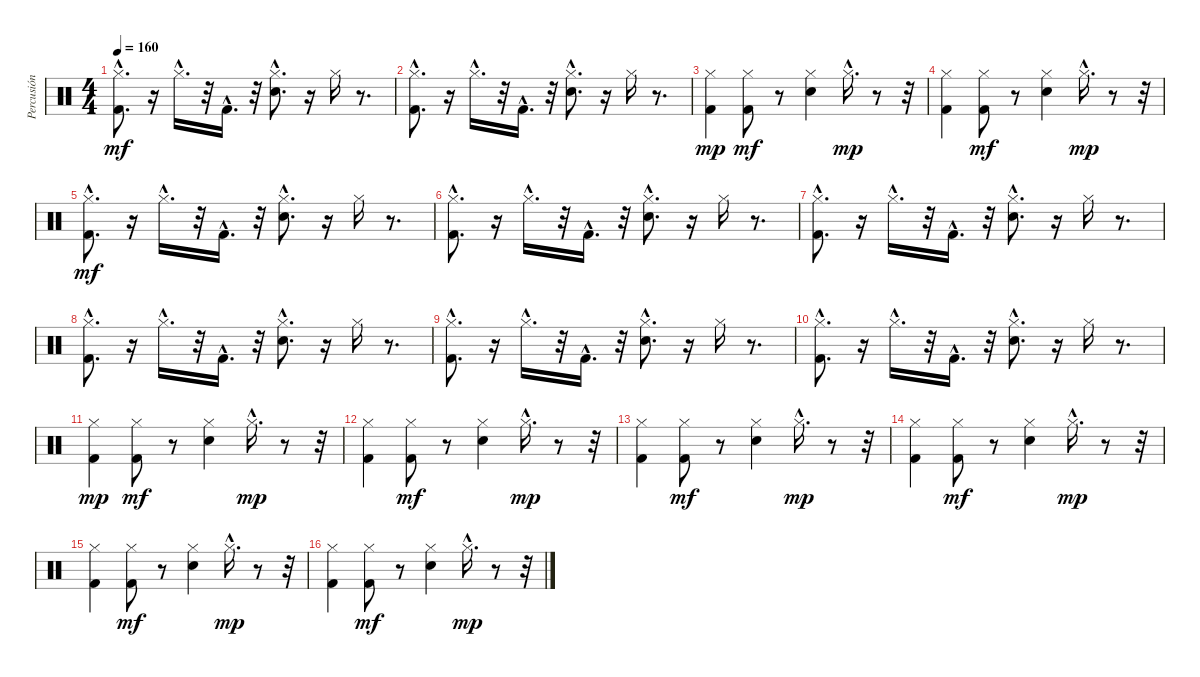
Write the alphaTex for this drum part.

\track ("Percusión" "Percusión") {instrument percussion}
\staff {score}
\articulation defaults
\ts (4 4)
\tempo 160
\clef neutral
\ks c
("Hi-Hat (closed)"{hac} "Kick (hit) 2"{hac}).8{d dy mf} r.16 "Hi-Hat (closed)"{hac}.16{d} r.32 "Kick (hit) 2"{hac}.16{d} r.32 ("Hi-Hat (closed)"{hac} "Electric Snare (hit)"{hac}).8{d} r.16 "Hi-Hat (closed)".16 r.8{d} |
("Hi-Hat (closed)"{hac} "Kick (hit) 2"{hac}).8{d} r.16 "Hi-Hat (closed)"{hac}.16{d} r.32 "Kick (hit) 2"{hac}.16{d} r.32 ("Hi-Hat (closed)"{hac} "Electric Snare (hit)"{hac}).8{d} r.16 "Hi-Hat (closed)".16 r.8{d} |
("Hi-Hat (closed)" "Kick (hit) 2").4{dy mp} ("Hi-Hat (closed)" "Kick (hit) 2").8{dy mf} r.8 ("Hi-Hat (closed)" "Electric Snare (hit)").4 "Hi-Hat (closed)"{hac}.16{d dy mp} r.8 r.32 |
("Hi-Hat (closed)" "Kick (hit) 2").4 ("Hi-Hat (closed)" "Kick (hit) 2").8{dy mf} r.8 ("Hi-Hat (closed)" "Electric Snare (hit)").4 "Hi-Hat (closed)"{hac}.16{d dy mp} r.8 r.32 |
("Hi-Hat (closed)"{hac} "Kick (hit) 2"{hac}).8{d dy mf} r.16 "Hi-Hat (closed)"{hac}.16{d} r.32 "Kick (hit) 2"{hac}.16{d} r.32 ("Hi-Hat (closed)"{hac} "Electric Snare (hit)"{hac}).8{d} r.16 "Hi-Hat (closed)".16 r.8{d} |
("Hi-Hat (closed)"{hac} "Kick (hit) 2"{hac}).8{d} r.16 "Hi-Hat (closed)"{hac}.16{d} r.32 "Kick (hit) 2"{hac}.16{d} r.32 ("Hi-Hat (closed)"{hac} "Electric Snare (hit)"{hac}).8{d} r.16 "Hi-Hat (closed)".16 r.8{d} |
("Hi-Hat (closed)"{hac} "Kick (hit) 2"{hac}).8{d} r.16 "Hi-Hat (closed)"{hac}.16{d} r.32 "Kick (hit) 2"{hac}.16{d} r.32 ("Hi-Hat (closed)"{hac} "Electric Snare (hit)"{hac}).8{d} r.16 "Hi-Hat (closed)".16 r.8{d} |
("Hi-Hat (closed)"{hac} "Kick (hit) 2"{hac}).8{d} r.16 "Hi-Hat (closed)"{hac}.16{d} r.32 "Kick (hit) 2"{hac}.16{d} r.32 ("Hi-Hat (closed)"{hac} "Electric Snare (hit)"{hac}).8{d} r.16 "Hi-Hat (closed)".16 r.8{d} |
("Hi-Hat (closed)"{hac} "Kick (hit) 2"{hac}).8{d} r.16 "Hi-Hat (closed)"{hac}.16{d} r.32 "Kick (hit) 2"{hac}.16{d} r.32 ("Hi-Hat (closed)"{hac} "Electric Snare (hit)"{hac}).8{d} r.16 "Hi-Hat (closed)".16 r.8{d} |
("Hi-Hat (closed)"{hac} "Kick (hit) 2"{hac}).8{d} r.16 "Hi-Hat (closed)"{hac}.16{d} r.32 "Kick (hit) 2"{hac}.16{d} r.32 ("Hi-Hat (closed)"{hac} "Electric Snare (hit)"{hac}).8{d} r.16 "Hi-Hat (closed)".16 r.8{d} |
("Hi-Hat (closed)" "Kick (hit) 2").4{dy mp} ("Hi-Hat (closed)" "Kick (hit) 2").8{dy mf} r.8 ("Hi-Hat (closed)" "Electric Snare (hit)").4 "Hi-Hat (closed)"{hac}.16{d dy mp} r.8 r.32 |
("Hi-Hat (closed)" "Kick (hit) 2").4 ("Hi-Hat (closed)" "Kick (hit) 2").8{dy mf} r.8 ("Hi-Hat (closed)" "Electric Snare (hit)").4 "Hi-Hat (closed)"{hac}.16{d dy mp} r.8 r.32 |
("Hi-Hat (closed)" "Kick (hit) 2").4 ("Hi-Hat (closed)" "Kick (hit) 2").8{dy mf} r.8 ("Hi-Hat (closed)" "Electric Snare (hit)").4 "Hi-Hat (closed)"{hac}.16{d dy mp} r.8 r.32 |
("Hi-Hat (closed)" "Kick (hit) 2").4 ("Hi-Hat (closed)" "Kick (hit) 2").8{dy mf} r.8 ("Hi-Hat (closed)" "Electric Snare (hit)").4 "Hi-Hat (closed)"{hac}.16{d dy mp} r.8 r.32 |
("Hi-Hat (closed)" "Kick (hit) 2").4 ("Hi-Hat (closed)" "Kick (hit) 2").8{dy mf} r.8 ("Hi-Hat (closed)" "Electric Snare (hit)").4 "Hi-Hat (closed)"{hac}.16{d dy mp} r.8 r.32 |
("Hi-Hat (closed)" "Kick (hit) 2").4 ("Hi-Hat (closed)" "Kick (hit) 2").8{dy mf} r.8 ("Hi-Hat (closed)" "Electric Snare (hit)").4 "Hi-Hat (closed)"{hac}.16{d dy mp} r.8 r.32
